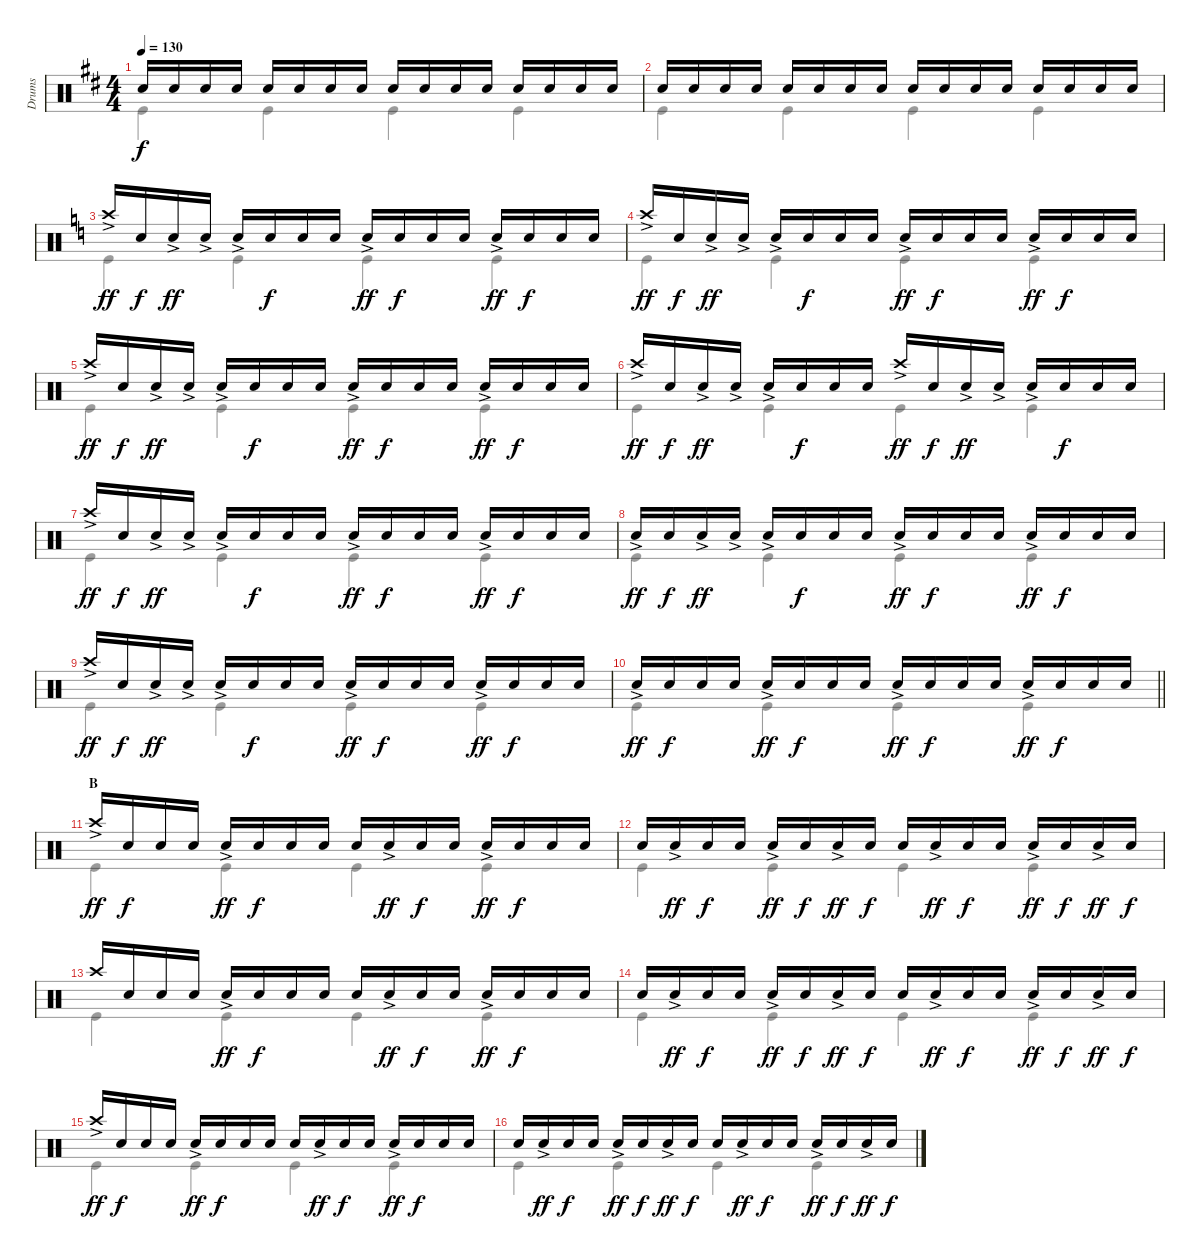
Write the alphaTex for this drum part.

\track ("Drums" "Drums") {instrument percussion}
\staff {score}
\articulation defaults
\voice
\ts (4 4)
\tempo 130
\clef neutral
\ks d "Snare (hit) 2".16{dy f} "Snare (hit) 2".16 "Snare (hit) 2".16 "Snare (hit) 2".16 "Snare (hit) 2".16 "Snare (hit) 2".16 "Snare (hit) 2".16 "Snare (hit) 2".16 "Snare (hit) 2".16 "Snare (hit) 2".16 "Snare (hit) 2".16 "Snare (hit) 2".16 "Snare (hit) 2".16 "Snare (hit) 2".16 "Snare (hit) 2".16 "Snare (hit) 2".16
|
"Snare (hit) 2".16 "Snare (hit) 2".16 "Snare (hit) 2".16 "Snare (hit) 2".16 "Snare (hit) 2".16 "Snare (hit) 2".16 "Snare (hit) 2".16 "Snare (hit) 2".16 "Snare (hit) 2".16 "Snare (hit) 2".16 "Snare (hit) 2".16 "Snare (hit) 2".16 "Snare (hit) 2".16 "Snare (hit) 2".16 "Snare (hit) 2".16 "Snare (hit) 2".16 |
\ks c "Crash high (hit)"{ac}.16{dy ff} "Snare (hit) 2".16{dy f} "Snare (hit) 2"{ac}.16{dy ff} "Snare (hit) 2"{ac}.16 "Snare (hit) 2"{ac}.16 "Snare (hit) 2".16{dy f} "Snare (hit) 2".16 "Snare (hit) 2".16 "Snare (hit) 2"{ac}.16{dy ff} "Snare (hit) 2".16{dy f} "Snare (hit) 2".16 "Snare (hit) 2".16 "Snare (hit) 2"{ac}.16{dy ff} "Snare (hit) 2".16{dy f} "Snare (hit) 2".16 "Snare (hit) 2".16
|
"Crash high (hit)"{ac}.16{dy ff} "Snare (hit) 2".16{dy f} "Snare (hit) 2"{ac}.16{dy ff} "Snare (hit) 2"{ac}.16 "Snare (hit) 2"{ac}.16 "Snare (hit) 2".16{dy f} "Snare (hit) 2".16 "Snare (hit) 2".16 "Snare (hit) 2"{ac}.16{dy ff} "Snare (hit) 2".16{dy f} "Snare (hit) 2".16 "Snare (hit) 2".16 "Snare (hit) 2"{ac}.16{dy ff} "Snare (hit) 2".16{dy f} "Snare (hit) 2".16 "Snare (hit) 2".16 |
"Crash high (hit)"{ac}.16{dy ff} "Snare (hit) 2".16{dy f} "Snare (hit) 2"{ac}.16{dy ff} "Snare (hit) 2"{ac}.16 "Snare (hit) 2"{ac}.16 "Snare (hit) 2".16{dy f} "Snare (hit) 2".16 "Snare (hit) 2".16 "Snare (hit) 2"{ac}.16{dy ff} "Snare (hit) 2".16{dy f} "Snare (hit) 2".16 "Snare (hit) 2".16 "Snare (hit) 2"{ac}.16{dy ff} "Snare (hit) 2".16{dy f} "Snare (hit) 2".16 "Snare (hit) 2".16 |
"Crash high (hit)"{ac}.16{dy ff} "Snare (hit) 2".16{dy f} "Snare (hit) 2"{ac}.16{dy ff} "Snare (hit) 2"{ac}.16 "Snare (hit) 2"{ac}.16 "Snare (hit) 2".16{dy f} "Snare (hit) 2".16 "Snare (hit) 2".16 "Crash high (hit)"{ac}.16{dy ff} "Snare (hit) 2".16{dy f} "Snare (hit) 2"{ac}.16{dy ff} "Snare (hit) 2"{ac}.16 "Snare (hit) 2"{ac}.16 "Snare (hit) 2".16{dy f} "Snare (hit) 2".16 "Snare (hit) 2".16 |
"Crash high (hit)"{ac}.16{dy ff} "Snare (hit) 2".16{dy f} "Snare (hit) 2"{ac}.16{dy ff} "Snare (hit) 2"{ac}.16 "Snare (hit) 2"{ac}.16 "Snare (hit) 2".16{dy f} "Snare (hit) 2".16 "Snare (hit) 2".16 "Snare (hit) 2"{ac}.16{dy ff} "Snare (hit) 2".16{dy f} "Snare (hit) 2".16 "Snare (hit) 2".16 "Snare (hit) 2"{ac}.16{dy ff} "Snare (hit) 2".16{dy f} "Snare (hit) 2".16 "Snare (hit) 2".16 |
"Snare (hit) 2"{ac}.16{dy ff} "Snare (hit) 2".16{dy f} "Snare (hit) 2"{ac}.16{dy ff} "Snare (hit) 2"{ac}.16 "Snare (hit) 2"{ac}.16 "Snare (hit) 2".16{dy f} "Snare (hit) 2".16 "Snare (hit) 2".16 "Snare (hit) 2"{ac}.16{dy ff} "Snare (hit) 2".16{dy f} "Snare (hit) 2".16 "Snare (hit) 2".16 "Snare (hit) 2"{ac}.16{dy ff} "Snare (hit) 2".16{dy f} "Snare (hit) 2".16 "Snare (hit) 2".16 |
"Crash high (hit)"{ac}.16{dy ff} "Snare (hit) 2".16{dy f} "Snare (hit) 2"{ac}.16{dy ff} "Snare (hit) 2"{ac}.16 "Snare (hit) 2"{ac}.16 "Snare (hit) 2".16{dy f} "Snare (hit) 2".16 "Snare (hit) 2".16 "Snare (hit) 2"{ac}.16{dy ff} "Snare (hit) 2".16{dy f} "Snare (hit) 2".16 "Snare (hit) 2".16 "Snare (hit) 2"{ac}.16{dy ff} "Snare (hit) 2".16{dy f} "Snare (hit) 2".16 "Snare (hit) 2".16 |
\barLineRight lightlight "Snare (hit) 2"{ac}.16{dy ff} "Snare (hit) 2".16{dy f} "Snare (hit) 2".16 "Snare (hit) 2".16 "Snare (hit) 2"{ac}.16{dy ff volume 16} "Snare (hit) 2".16{dy f} "Snare (hit) 2".16 "Snare (hit) 2".16 "Snare (hit) 2"{ac}.16{dy ff} "Snare (hit) 2".16{dy f} "Snare (hit) 2".16 "Snare (hit) 2".16 "Snare (hit) 2"{ac}.16{dy ff} "Snare (hit) 2".16{dy f} "Snare (hit) 2".16 "Snare (hit) 2".16
|
\section ("" "B")
"Crash high (hit)"{ac}.16{dy ff volume 11} "Snare (hit) 2".16{dy f} "Snare (hit) 2".16 "Snare (hit) 2".16 "Snare (hit) 2"{ac}.16{dy ff} "Snare (hit) 2".16{dy f} "Snare (hit) 2".16 "Snare (hit) 2".16 "Snare (hit) 2".16 "Snare (hit) 2"{ac}.16{dy ff} "Snare (hit) 2".16{dy f} "Snare (hit) 2".16 "Snare (hit) 2"{ac}.16{dy ff} "Snare (hit) 2".16{dy f} "Snare (hit) 2".16 "Snare (hit) 2".16 |
"Snare (hit) 2".16 "Snare (hit) 2"{ac}.16{dy ff} "Snare (hit) 2".16{dy f} "Snare (hit) 2".16 "Snare (hit) 2"{ac}.16{dy ff} "Snare (hit) 2".16{dy f} "Snare (hit) 2"{ac}.16{dy ff} "Snare (hit) 2".16{dy f} "Snare (hit) 2".16 "Snare (hit) 2"{ac}.16{dy ff} "Snare (hit) 2".16{dy f} "Snare (hit) 2".16 "Snare (hit) 2"{ac}.16{dy ff} "Snare (hit) 2".16{dy f} "Snare (hit) 2"{ac}.16{dy ff} "Snare (hit) 2".16{dy f} |
"Crash high (hit)".16 "Snare (hit) 2".16 "Snare (hit) 2".16 "Snare (hit) 2".16 "Snare (hit) 2"{ac}.16{dy ff} "Snare (hit) 2".16{dy f} "Snare (hit) 2".16 "Snare (hit) 2".16 "Snare (hit) 2".16 "Snare (hit) 2"{ac}.16{dy ff} "Snare (hit) 2".16{dy f} "Snare (hit) 2".16 "Snare (hit) 2"{ac}.16{dy ff} "Snare (hit) 2".16{dy f} "Snare (hit) 2".16 "Snare (hit) 2".16 |
"Snare (hit) 2".16 "Snare (hit) 2"{ac}.16{dy ff} "Snare (hit) 2".16{dy f} "Snare (hit) 2".16 "Snare (hit) 2"{ac}.16{dy ff} "Snare (hit) 2".16{dy f} "Snare (hit) 2"{ac}.16{dy ff} "Snare (hit) 2".16{dy f} "Snare (hit) 2".16 "Snare (hit) 2"{ac}.16{dy ff} "Snare (hit) 2".16{dy f} "Snare (hit) 2".16 "Snare (hit) 2"{ac}.16{dy ff} "Snare (hit) 2".16{dy f} "Snare (hit) 2"{ac}.16{dy ff} "Snare (hit) 2".16{dy f} |
"Crash high (hit)"{ac}.16{dy ff} "Snare (hit) 2".16{dy f} "Snare (hit) 2".16 "Snare (hit) 2".16 "Snare (hit) 2"{ac}.16{dy ff} "Snare (hit) 2".16{dy f} "Snare (hit) 2".16 "Snare (hit) 2".16 "Snare (hit) 2".16 "Snare (hit) 2"{ac}.16{dy ff} "Snare (hit) 2".16{dy f} "Snare (hit) 2".16 "Snare (hit) 2"{ac}.16{dy ff} "Snare (hit) 2".16{dy f} "Snare (hit) 2".16 "Snare (hit) 2".16 |
"Snare (hit) 2".16 "Snare (hit) 2"{ac}.16{dy ff} "Snare (hit) 2".16{dy f} "Snare (hit) 2".16 "Snare (hit) 2"{ac}.16{dy ff} "Snare (hit) 2".16{dy f} "Snare (hit) 2"{ac}.16{dy ff} "Snare (hit) 2".16{dy f} "Snare (hit) 2".16 "Snare (hit) 2"{ac}.16{dy ff} "Snare (hit) 2".16{dy f} "Snare (hit) 2".16 "Snare (hit) 2"{ac}.16{dy ff} "Snare (hit) 2".16{dy f} "Snare (hit) 2"{ac}.16{dy ff} "Snare (hit) 2".16{dy f}
\voice
\clef neutral
\ottava regular
\simile none
\ks d "Kick (hit)".4{dy f} "Kick (hit)".4 "Kick (hit)".4 "Kick (hit)".4
|
"Kick (hit)".4 "Kick (hit)".4 "Kick (hit)".4 "Kick (hit)".4 |
\ks c "Kick (hit)".4 "Kick (hit)".4 "Kick (hit)".4 "Kick (hit)".4
|
"Kick (hit)".4 "Kick (hit)".4 "Kick (hit)".4 "Kick (hit)".4 |
"Kick (hit)".4 "Kick (hit)".4 "Kick (hit)".4 "Kick (hit)".4 |
"Kick (hit)".4 "Kick (hit)".4 "Kick (hit)".4 "Kick (hit)".4 |
"Kick (hit)".4 "Kick (hit)".4 "Kick (hit)".4 "Kick (hit)".4 |
"Kick (hit)".4 "Kick (hit)".4 "Kick (hit)".4 "Kick (hit)".4 |
"Kick (hit)".4 "Kick (hit)".4 "Kick (hit)".4 "Kick (hit)".4 |
\barLineRight lightlight "Kick (hit)".4 "Kick (hit)".4 "Kick (hit)".4 "Kick (hit)".4
|
"Kick (hit)".4 "Kick (hit)".4 "Kick (hit)".4 "Kick (hit)".4 |
"Kick (hit)".4 "Kick (hit)".4 "Kick (hit)".4 "Kick (hit)".4 |
"Kick (hit)".4 "Kick (hit)".4 "Kick (hit)".4 "Kick (hit)".4 |
"Kick (hit)".4 "Kick (hit)".4 "Kick (hit)".4 "Kick (hit)".4 |
"Kick (hit)".4 "Kick (hit)".4 "Kick (hit)".4 "Kick (hit)".4 |
"Kick (hit)".4 "Kick (hit)".4 "Kick (hit)".4 "Kick (hit)".4
